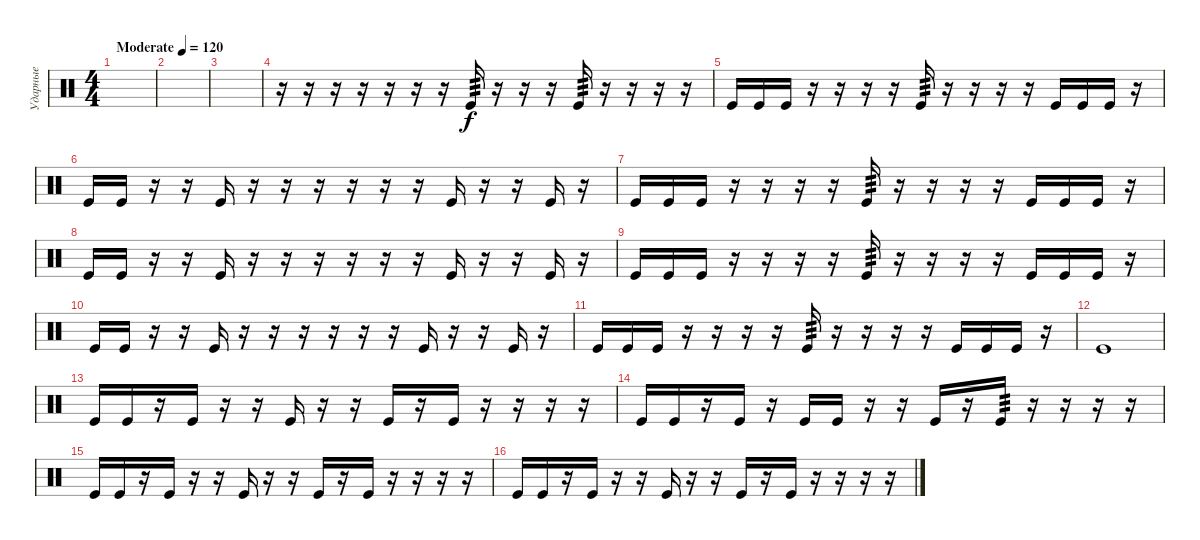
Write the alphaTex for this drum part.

\track ("Ударные" "Ударные") {instrument percussion}
\staff {score}
\articulation defaults
\ts (4 4)
\tempo (120 "Moderate")
\clef neutral
\ks c
|
|
|
r.16 r.16 r.16 r.16 r.16 r.16 r.16 "Kick (hit)".16{tp 3} r.16 r.16 r.16 "Kick (hit)".16{tp 3} r.16 r.16 r.16 r.16 |
"Kick (hit)".16 "Kick (hit)".16 "Kick (hit)".16 r.16 r.16 r.16 r.16 "Kick (hit)".16{tp 3} r.16 r.16 r.16 r.16 "Kick (hit)".16 "Kick (hit)".16 "Kick (hit)".16 r.16 |
"Kick (hit)".16 "Kick (hit)".16 r.16 r.16 "Kick (hit)".16 r.16 r.16 r.16 r.16 r.16 r.16 "Kick (hit)".16 r.16 r.16 "Kick (hit)".16 r.16 |
"Kick (hit)".16 "Kick (hit)".16 "Kick (hit)".16 r.16 r.16 r.16 r.16 "Kick (hit)".16{tp 3} r.16 r.16 r.16 r.16 "Kick (hit)".16 "Kick (hit)".16 "Kick (hit)".16 r.16 |
"Kick (hit)".16 "Kick (hit)".16 r.16 r.16 "Kick (hit)".16 r.16 r.16 r.16 r.16 r.16 r.16 "Kick (hit)".16 r.16 r.16 "Kick (hit)".16 r.16 |
"Kick (hit)".16 "Kick (hit)".16 "Kick (hit)".16 r.16 r.16 r.16 r.16 "Kick (hit)".16{tp 3} r.16 r.16 r.16 r.16 "Kick (hit)".16 "Kick (hit)".16 "Kick (hit)".16 r.16 |
"Kick (hit)".16 "Kick (hit)".16 r.16 r.16 "Kick (hit)".16 r.16 r.16 r.16 r.16 r.16 r.16 "Kick (hit)".16 r.16 r.16 "Kick (hit)".16 r.16 |
"Kick (hit)".16 "Kick (hit)".16 "Kick (hit)".16 r.16 r.16 r.16 r.16 "Kick (hit)".16{tp 3} r.16 r.16 r.16 r.16 "Kick (hit)".16 "Kick (hit)".16 "Kick (hit)".16 r.16 |
"Kick (hit)".1 |
"Kick (hit)".16 "Kick (hit)".16 r.16 "Kick (hit)".16 r.16 r.16 "Kick (hit)".16 r.16 r.16 "Kick (hit)".16 r.16 "Kick (hit)".16 r.16 r.16 r.16 r.16 |
"Kick (hit)".16 "Kick (hit)".16 r.16 "Kick (hit)".16 r.16 "Kick (hit)".16 "Kick (hit)".16 r.16 r.16 "Kick (hit)".16 r.16 "Kick (hit)".16{tp 3} r.16 r.16 r.16 r.16 |
"Kick (hit)".16 "Kick (hit)".16 r.16 "Kick (hit)".16 r.16 r.16 "Kick (hit)".16 r.16 r.16 "Kick (hit)".16 r.16 "Kick (hit)".16 r.16 r.16 r.16 r.16 |
"Kick (hit)".16 "Kick (hit)".16 r.16 "Kick (hit)".16 r.16 r.16 "Kick (hit)".16 r.16 r.16 "Kick (hit)".16 r.16 "Kick (hit)".16 r.16 r.16 r.16 r.16
